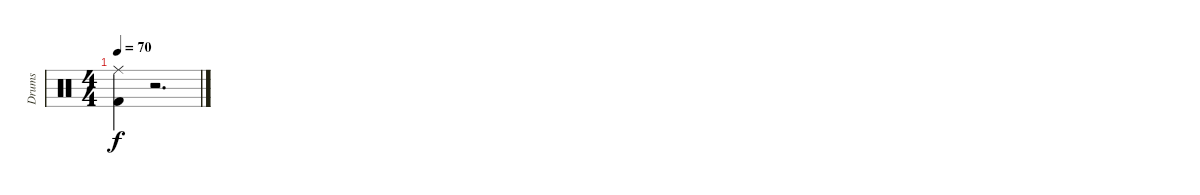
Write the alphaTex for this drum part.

\track ("Drums" "Drums") {instrument percussion}
\staff {score}
\articulation defaults
\ts (4 4)
\tempo 70
\clef neutral
\ks c
("Ride (middle)" "Kick (hit) 2").4{dy f} r.2{d}
